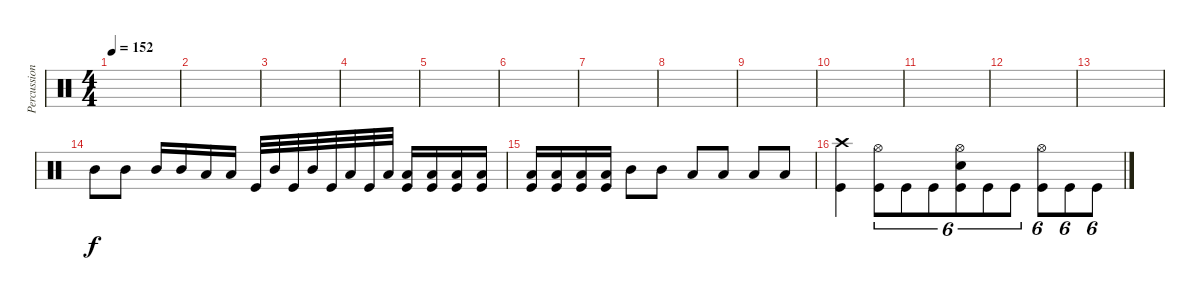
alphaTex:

\track ("Percussion" "Percussion") {instrument percussion}
\staff {score}
\articulation defaults
\ts (4 4)
\tempo 152
\clef neutral
\ks c
|
|
|
|
|
|
|
|
|
|
|
|
|
"Mid Tom (hit)".8 "Mid Tom (hit)".8 "Mid Tom (hit)".16 "Mid Tom (hit)".16 "Low Tom (hit)".16 "Low Tom (hit)".16 "Kick (hit)".32 "Mid Tom (hit)".32 "Kick (hit)".32 "Mid Tom (hit)".32 "Kick (hit)".32 "Low Tom (hit)".32 "Kick (hit)".32 "Low Tom (hit)".32 ("Low Floor Tom (hit)" "Kick (hit)").16 ("Low Floor Tom (hit)" "Kick (hit)").16 ("Low Tom (hit)" "Kick (hit)").16 ("Low Tom (hit)" "Kick (hit)").16 |
("Low Floor Tom (hit)" "Kick (hit)").16 ("Low Tom (hit)" "Kick (hit)").16 ("Low Floor Tom (hit)" "Kick (hit)").16 ("Low Tom (hit)" "Kick (hit)").16 "Mid Tom (hit)".8 "Mid Tom (hit)".8 "Low Tom (hit)".8 "Low Tom (hit)".8 "Low Floor Tom (hit)".8 "Low Floor Tom (hit)".8 |
("Crash high (hit)" "Kick (hit)").4 ("Hi-Hat (open)" "Kick (hit)").8{tu (6 4)} "Kick (hit)".8{tu (6 4)} "Kick (hit)".8{tu (6 4)} ("Hi-Hat (open)" "Snare (hit) 2" "Kick (hit)").8{tu (6 4)} "Kick (hit)".8{tu (6 4)} "Kick (hit)".8{tu (6 4)} ("Hi-Hat (open)" "Kick (hit)").8{tu (6 4)} "Kick (hit)".8{tu (6 4)} "Kick (hit)".8{tu (6 4)}
